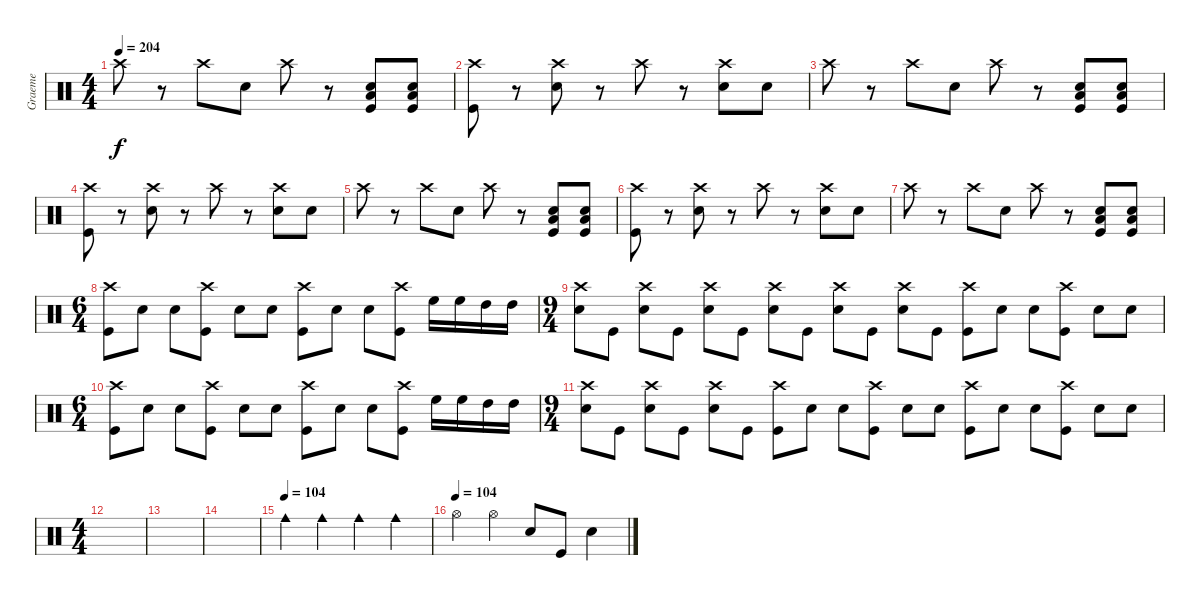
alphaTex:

\track ("Graeme" "Graeme") {instrument percussion}
\staff {score}
\articulation defaults
\ts (4 4)
\tempo 204
\clef neutral
\ks c "Crash high (hit)".8{dy f}
r.8 "Crash high (hit)".8 "Snare (hit) 2".8 "Crash high (hit)".8 r.8 ("Low Floor Tom (hit)" "Snare (hit) 2" "Kick (hit)").8 ("Low Floor Tom (hit)" "Snare (hit) 2" "Kick (hit)").8 |
("Crash high (hit)" "Kick (hit)").8 r.8 ("Crash high (hit)" "Snare (hit) 2").8 r.8 "Crash high (hit)".8 r.8 ("Crash high (hit)" "Snare (hit) 2").8 "Snare (hit) 2".8 |
"Crash high (hit)".8 r.8 "Crash high (hit)".8 "Snare (hit) 2".8 "Crash high (hit)".8 r.8 ("Low Floor Tom (hit)" "Snare (hit) 2" "Kick (hit)").8 ("Low Floor Tom (hit)" "Snare (hit) 2" "Kick (hit)").8 |
("Crash high (hit)" "Kick (hit)").8 r.8 ("Crash high (hit)" "Snare (hit) 2").8 r.8 "Crash high (hit)".8 r.8 ("Crash high (hit)" "Snare (hit) 2").8 "Snare (hit) 2".8 |
"Crash high (hit)".8 r.8 "Crash high (hit)".8 "Snare (hit) 2".8 "Crash high (hit)".8 r.8 ("Low Floor Tom (hit)" "Snare (hit) 2" "Kick (hit)").8 ("Low Floor Tom (hit)" "Snare (hit) 2" "Kick (hit)").8 |
("Crash high (hit)" "Kick (hit)").8 r.8 ("Crash high (hit)" "Snare (hit) 2").8 r.8 "Crash high (hit)".8 r.8 ("Crash high (hit)" "Snare (hit) 2").8 "Snare (hit) 2".8 |
"Crash high (hit)".8 r.8 "Crash high (hit)".8 "Snare (hit) 2".8 "Crash high (hit)".8 r.8 ("Low Floor Tom (hit)" "Snare (hit) 2" "Kick (hit)").8 ("Low Floor Tom (hit)" "Snare (hit) 2" "Kick (hit)").8 |
\ts (6 4)
("Crash high (hit)" "Kick (hit)").8 "Snare (hit) 2".8 "Snare (hit) 2".8 ("Crash high (hit)" "Kick (hit)").8 "Snare (hit) 2".8 "Snare (hit) 2".8 ("Crash high (hit)" "Kick (hit)").8 "Snare (hit) 2".8 "Snare (hit) 2".8 ("Crash high (hit)" "Kick (hit)").8 "High Floor Tom (hit)".16 "High Floor Tom (hit)".16 "High Tom (hit)".16 "High Tom (hit)".16 |
\ts (9 4)
("Crash high (hit)" "Snare (hit) 2").8 "Kick (hit)".8 ("Crash high (hit)" "Snare (hit) 2").8 "Kick (hit)".8 ("Crash high (hit)" "Snare (hit) 2").8 "Kick (hit)".8 ("Crash high (hit)" "Snare (hit) 2").8 "Kick (hit)".8 ("Crash high (hit)" "Snare (hit) 2").8 "Kick (hit)".8 ("Crash high (hit)" "Snare (hit) 2").8 "Kick (hit)".8 ("Crash high (hit)" "Kick (hit)").8 "Snare (hit) 2".8 "Snare (hit) 2".8 ("Crash high (hit)" "Kick (hit)").8 "Snare (hit) 2".8 "Snare (hit) 2".8 |
\ts (6 4)
("Crash high (hit)" "Kick (hit)").8 "Snare (hit) 2".8 "Snare (hit) 2".8 ("Crash high (hit)" "Kick (hit)").8 "Snare (hit) 2".8 "Snare (hit) 2".8 ("Crash high (hit)" "Kick (hit)").8 "Snare (hit) 2".8 "Snare (hit) 2".8 ("Crash high (hit)" "Kick (hit)").8 "High Floor Tom (hit)".16 "High Floor Tom (hit)".16 "High Tom (hit)".16 "High Tom (hit)".16 |
\ts (9 4)
("Crash high (hit)" "Snare (hit) 2").8 "Kick (hit)".8 ("Crash high (hit)" "Snare (hit) 2").8 "Kick (hit)".8 ("Crash high (hit)" "Snare (hit) 2").8 "Kick (hit)".8 ("Crash high (hit)" "Kick (hit)").8 "Snare (hit) 2".8 "Snare (hit) 2".8 ("Crash high (hit)" "Kick (hit)").8 "Snare (hit) 2".8 "Snare (hit) 2".8 ("Crash high (hit)" "Kick (hit)").8 "Snare (hit) 2".8 "Snare (hit) 2".8 ("Crash high (hit)" "Kick (hit)").8 "Snare (hit) 2".8 "Snare (hit) 2".8 |
\ts (4 4)
|
|
|
\tempo (104)
"Cowbell medium (hit)".4 "Cowbell medium (hit)".4 "Cowbell medium (hit)".4 "Cowbell medium (hit)".4 |
\tempo (104)
"Hi-Hat (open)".4 "Hi-Hat (open)".4 "Snare (hit) 2".8 "Kick (hit)".8 "Snare (hit) 2".4
